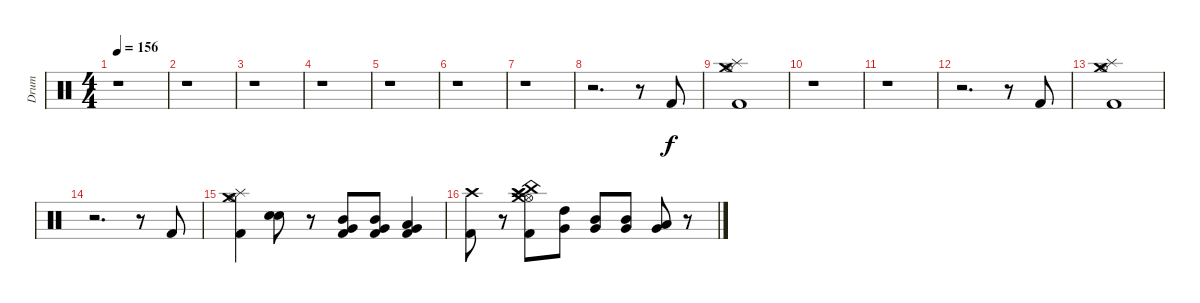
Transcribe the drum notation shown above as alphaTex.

\track (" Drum" " Drum") {instrument percussion}
\staff {score}
\articulation defaults
\ts (4 4)
\tempo 156
\clef neutral
\ks c
r.1{dy f} |
r.1 |
r.1 |
r.1 |
r.1 |
r.1 |
r.1 |
r.2{d} r.8 "Kick (hit) 2".8 |
("Hi-Hat (open)" "Crash medium (hit)" "Splash (hit)" "Kick (hit) 2").1 |
r.1 |
r.1 |
r.2{d} r.8 "Kick (hit) 2".8 |
("Hi-Hat (open)" "Crash medium (hit)" "Splash (hit)" "Kick (hit) 2").1 |
r.2{d} r.8 "Kick (hit) 2".8 |
("Hi-Hat (open)" "Crash medium (hit)" "Splash (hit)" "Kick (hit) 2").4 ("Electric Snare (hit)" "Snare (hit) 2").8 r.8 ("Very Low Tom (hit)" "Mid Tom (hit)" "Kick (hit) 2").8 ("Very Low Tom (hit)" "Mid Tom (hit)" "Kick (hit) 2").8 ("Very Low Tom (hit)" "Low Tom (hit)" "Kick (hit) 2").4 |
("Crash high (hit)" "Kick (hit) 2").8 r.8 ("Crash high (hit)" "Hi-Hat (open)" "Crash medium (hit)" "Splash (hit)" "China (hit)" "Kick (hit) 2").8 ("High Tom (hit)" "Very Low Tom (hit)").8 ("Mid Tom (hit)" "Very Low Tom (hit)").8 ("Mid Tom (hit)" "Very Low Tom (hit)").8 ("Low Tom (hit)" "Very Low Tom (hit)").8 r.8
